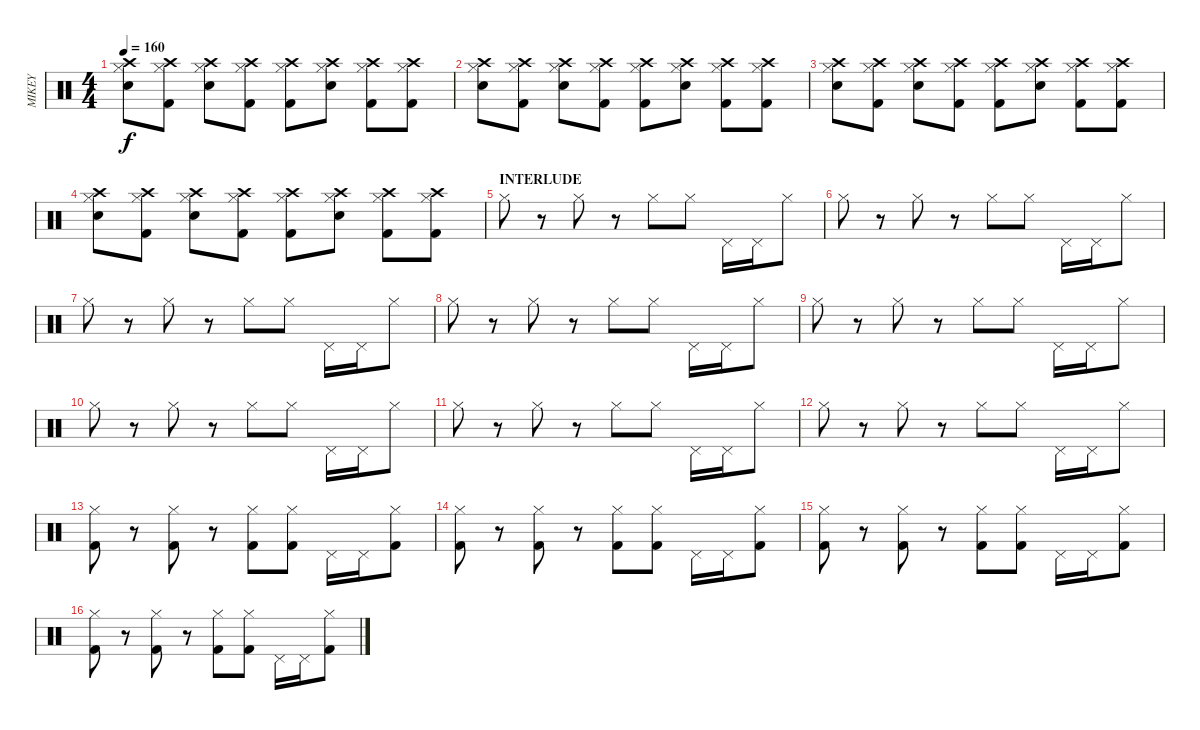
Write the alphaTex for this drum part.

\track ("MIKEY" "MIKEY") {instrument percussion}
\staff {score}
\articulation defaults
\ts (4 4)
\tempo 160
\clef neutral
\ks c
("Hi-Hat (closed)" "Crash high (hit)" "Electric Snare (hit)").8{dy f} ("Hi-Hat (closed)" "Crash high (hit)" "Kick (hit) 2").8 ("Hi-Hat (closed)" "Crash high (hit)" "Electric Snare (hit)").8 ("Hi-Hat (closed)" "Crash high (hit)" "Kick (hit) 2").8 ("Hi-Hat (closed)" "Crash high (hit)" "Kick (hit) 2").8 ("Hi-Hat (closed)" "Crash high (hit)" "Electric Snare (hit)").8 ("Hi-Hat (closed)" "Crash high (hit)" "Kick (hit) 2").8 ("Hi-Hat (closed)" "Crash high (hit)" "Kick (hit) 2").8 |
("Hi-Hat (closed)" "Crash high (hit)" "Electric Snare (hit)").8 ("Hi-Hat (closed)" "Crash high (hit)" "Kick (hit) 2").8 ("Hi-Hat (closed)" "Crash high (hit)" "Electric Snare (hit)").8 ("Hi-Hat (closed)" "Crash high (hit)" "Kick (hit) 2").8 ("Hi-Hat (closed)" "Crash high (hit)" "Kick (hit) 2").8 ("Hi-Hat (closed)" "Crash high (hit)" "Electric Snare (hit)").8 ("Hi-Hat (closed)" "Crash high (hit)" "Kick (hit) 2").8 ("Hi-Hat (closed)" "Crash high (hit)" "Kick (hit) 2").8 |
("Hi-Hat (closed)" "Crash high (hit)" "Electric Snare (hit)").8 ("Hi-Hat (closed)" "Crash high (hit)" "Kick (hit) 2").8 ("Hi-Hat (closed)" "Crash high (hit)" "Electric Snare (hit)").8 ("Hi-Hat (closed)" "Crash high (hit)" "Kick (hit) 2").8 ("Hi-Hat (closed)" "Crash high (hit)" "Kick (hit) 2").8 ("Hi-Hat (closed)" "Crash high (hit)" "Electric Snare (hit)").8 ("Hi-Hat (closed)" "Crash high (hit)" "Kick (hit) 2").8 ("Hi-Hat (closed)" "Crash high (hit)" "Kick (hit) 2").8 |
("Hi-Hat (closed)" "Crash high (hit)" "Electric Snare (hit)").8 ("Hi-Hat (closed)" "Crash high (hit)" "Kick (hit) 2").8 ("Hi-Hat (closed)" "Crash high (hit)" "Electric Snare (hit)").8 ("Hi-Hat (closed)" "Crash high (hit)" "Kick (hit) 2").8 ("Hi-Hat (closed)" "Crash high (hit)" "Kick (hit) 2").8 ("Hi-Hat (closed)" "Crash high (hit)" "Electric Snare (hit)").8 ("Hi-Hat (closed)" "Crash high (hit)" "Kick (hit) 2").8 ("Hi-Hat (closed)" "Crash high (hit)" "Kick (hit) 2").8 |
\section ("" "INTERLUDE")
"Hi-Hat (closed)".8 r.8 "Hi-Hat (closed)".8 r.8 "Hi-Hat (closed)".8 "Hi-Hat (closed)".8 "Pedal Hi-Hat (hit)".16 "Pedal Hi-Hat (hit)".16 "Hi-Hat (closed)".8 |
"Hi-Hat (closed)".8 r.8 "Hi-Hat (closed)".8 r.8 "Hi-Hat (closed)".8 "Hi-Hat (closed)".8 "Pedal Hi-Hat (hit)".16 "Pedal Hi-Hat (hit)".16 "Hi-Hat (closed)".8 |
"Hi-Hat (closed)".8 r.8 "Hi-Hat (closed)".8 r.8 "Hi-Hat (closed)".8 "Hi-Hat (closed)".8 "Pedal Hi-Hat (hit)".16 "Pedal Hi-Hat (hit)".16 "Hi-Hat (closed)".8 |
"Hi-Hat (closed)".8 r.8 "Hi-Hat (closed)".8 r.8 "Hi-Hat (closed)".8 "Hi-Hat (closed)".8 "Pedal Hi-Hat (hit)".16 "Pedal Hi-Hat (hit)".16 "Hi-Hat (closed)".8 |
"Hi-Hat (closed)".8 r.8 "Hi-Hat (closed)".8 r.8 "Hi-Hat (closed)".8 "Hi-Hat (closed)".8 "Pedal Hi-Hat (hit)".16 "Pedal Hi-Hat (hit)".16 "Hi-Hat (closed)".8 |
"Hi-Hat (closed)".8 r.8 "Hi-Hat (closed)".8 r.8 "Hi-Hat (closed)".8 "Hi-Hat (closed)".8 "Pedal Hi-Hat (hit)".16 "Pedal Hi-Hat (hit)".16 "Hi-Hat (closed)".8 |
"Hi-Hat (closed)".8 r.8 "Hi-Hat (closed)".8 r.8 "Hi-Hat (closed)".8 "Hi-Hat (closed)".8 "Pedal Hi-Hat (hit)".16 "Pedal Hi-Hat (hit)".16 "Hi-Hat (closed)".8 |
"Hi-Hat (closed)".8 r.8 "Hi-Hat (closed)".8 r.8 "Hi-Hat (closed)".8 "Hi-Hat (closed)".8 "Pedal Hi-Hat (hit)".16 "Pedal Hi-Hat (hit)".16 "Hi-Hat (closed)".8 |
("Kick (hit) 2" "Hi-Hat (closed)").8 r.8 ("Kick (hit) 2" "Hi-Hat (closed)").8 r.8 ("Kick (hit) 2" "Hi-Hat (closed)").8 ("Kick (hit) 2" "Hi-Hat (closed)").8 "Pedal Hi-Hat (hit)".16 "Pedal Hi-Hat (hit)".16 ("Kick (hit) 2" "Hi-Hat (closed)").8 |
("Kick (hit) 2" "Hi-Hat (closed)").8 r.8 ("Kick (hit) 2" "Hi-Hat (closed)").8 r.8 ("Kick (hit) 2" "Hi-Hat (closed)").8 ("Kick (hit) 2" "Hi-Hat (closed)").8 "Pedal Hi-Hat (hit)".16 "Pedal Hi-Hat (hit)".16 ("Kick (hit) 2" "Hi-Hat (closed)").8 |
("Kick (hit) 2" "Hi-Hat (closed)").8 r.8 ("Kick (hit) 2" "Hi-Hat (closed)").8 r.8 ("Kick (hit) 2" "Hi-Hat (closed)").8 ("Kick (hit) 2" "Hi-Hat (closed)").8 "Pedal Hi-Hat (hit)".16 "Pedal Hi-Hat (hit)".16 ("Kick (hit) 2" "Hi-Hat (closed)").8 |
("Kick (hit) 2" "Hi-Hat (closed)").8 r.8 ("Kick (hit) 2" "Hi-Hat (closed)").8 r.8 ("Kick (hit) 2" "Hi-Hat (closed)").8 ("Kick (hit) 2" "Hi-Hat (closed)").8 "Pedal Hi-Hat (hit)".16 "Pedal Hi-Hat (hit)".16 ("Kick (hit) 2" "Hi-Hat (closed)").8
